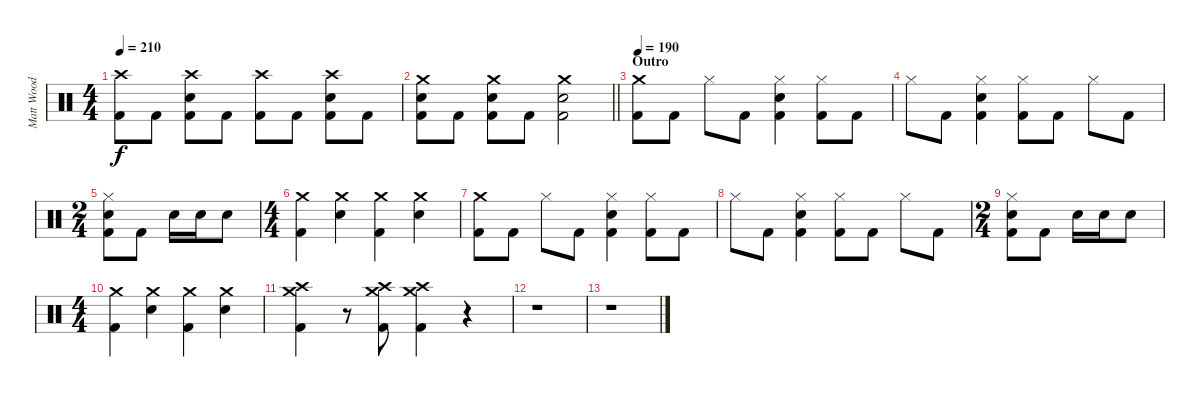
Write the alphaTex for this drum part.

\track ("Matt Wood" "Matt Wood") {instrument percussion}
\staff {score}
\articulation defaults
\ts (4 4)
\tempo 210
\clef neutral
\ks c
("Crash high (hit)" "Kick (hit) 2").8{dy f} "Kick (hit) 2".8 ("Crash high (hit)" "Snare (hit) 2" "Kick (hit) 2").8 "Kick (hit) 2".8 ("Crash high (hit)" "Kick (hit) 2").8 "Kick (hit) 2".8 ("Crash high (hit)" "Snare (hit) 2" "Kick (hit) 2").8 "Kick (hit) 2".8 |
\barLineRight lightlight
("Crash medium (hit)" "Snare (hit) 2" "Kick (hit) 2").8 "Kick (hit) 2".8 ("Crash medium (hit)" "Snare (hit) 2" "Kick (hit) 2").8 "Kick (hit) 2".8 ("Crash medium (hit)" "Snare (hit) 2" "Kick (hit) 2").2 |
\section ("" "Outro")
\tempo 190
("Crash medium (hit)" "Kick (hit) 2").8 "Kick (hit) 2".8 "Hi-Hat (closed)".8 "Kick (hit) 2".8 ("Hi-Hat (closed)" "Snare (hit) 2" "Kick (hit) 2").4 ("Hi-Hat (closed)" "Kick (hit) 2").8 "Kick (hit) 2".8 |
"Hi-Hat (closed)".8 "Kick (hit) 2".8 ("Hi-Hat (closed)" "Snare (hit) 2" "Kick (hit) 2").4 ("Hi-Hat (closed)" "Kick (hit) 2").8 "Kick (hit) 2".8 "Hi-Hat (closed)".8 "Kick (hit) 2".8 |
\ts (2 4)
("Hi-Hat (closed)" "Snare (hit) 2" "Kick (hit) 2").8 "Kick (hit) 2".8 "Snare (hit) 2".16 "Snare (hit) 2".16 "Snare (hit) 2".8 |
\ts (4 4)
("Crash medium (hit)" "Kick (hit) 2").4 ("Crash medium (hit)" "Snare (hit) 2").4 ("Crash medium (hit)" "Kick (hit) 2").4 ("Crash medium (hit)" "Snare (hit) 2").4 |
("Crash medium (hit)" "Kick (hit) 2").8 "Kick (hit) 2".8 "Hi-Hat (closed)".8 "Kick (hit) 2".8 ("Hi-Hat (closed)" "Snare (hit) 2" "Kick (hit) 2").4 ("Hi-Hat (closed)" "Kick (hit) 2").8 "Kick (hit) 2".8 |
"Hi-Hat (closed)".8 "Kick (hit) 2".8 ("Hi-Hat (closed)" "Snare (hit) 2" "Kick (hit) 2").4 ("Hi-Hat (closed)" "Kick (hit) 2").8 "Kick (hit) 2".8 "Hi-Hat (closed)".8 "Kick (hit) 2".8 |
\ts (2 4)
("Hi-Hat (closed)" "Snare (hit) 2" "Kick (hit) 2").8 "Kick (hit) 2".8 "Snare (hit) 2".16 "Snare (hit) 2".16 "Snare (hit) 2".8 |
\ts (4 4)
("Crash medium (hit)" "Kick (hit) 2").4 ("Crash medium (hit)" "Snare (hit) 2").4 ("Crash medium (hit)" "Kick (hit) 2").4 ("Crash medium (hit)" "Snare (hit) 2").4 |
("Crash medium (hit)" "Crash high (hit)" "Kick (hit) 2").4 r.8 ("Crash medium (hit)" "Crash high (hit)" "Kick (hit) 2").8 ("Crash medium (hit)" "Crash high (hit)" "Kick (hit) 2").4 r.4 |
r.1 |
r.1
